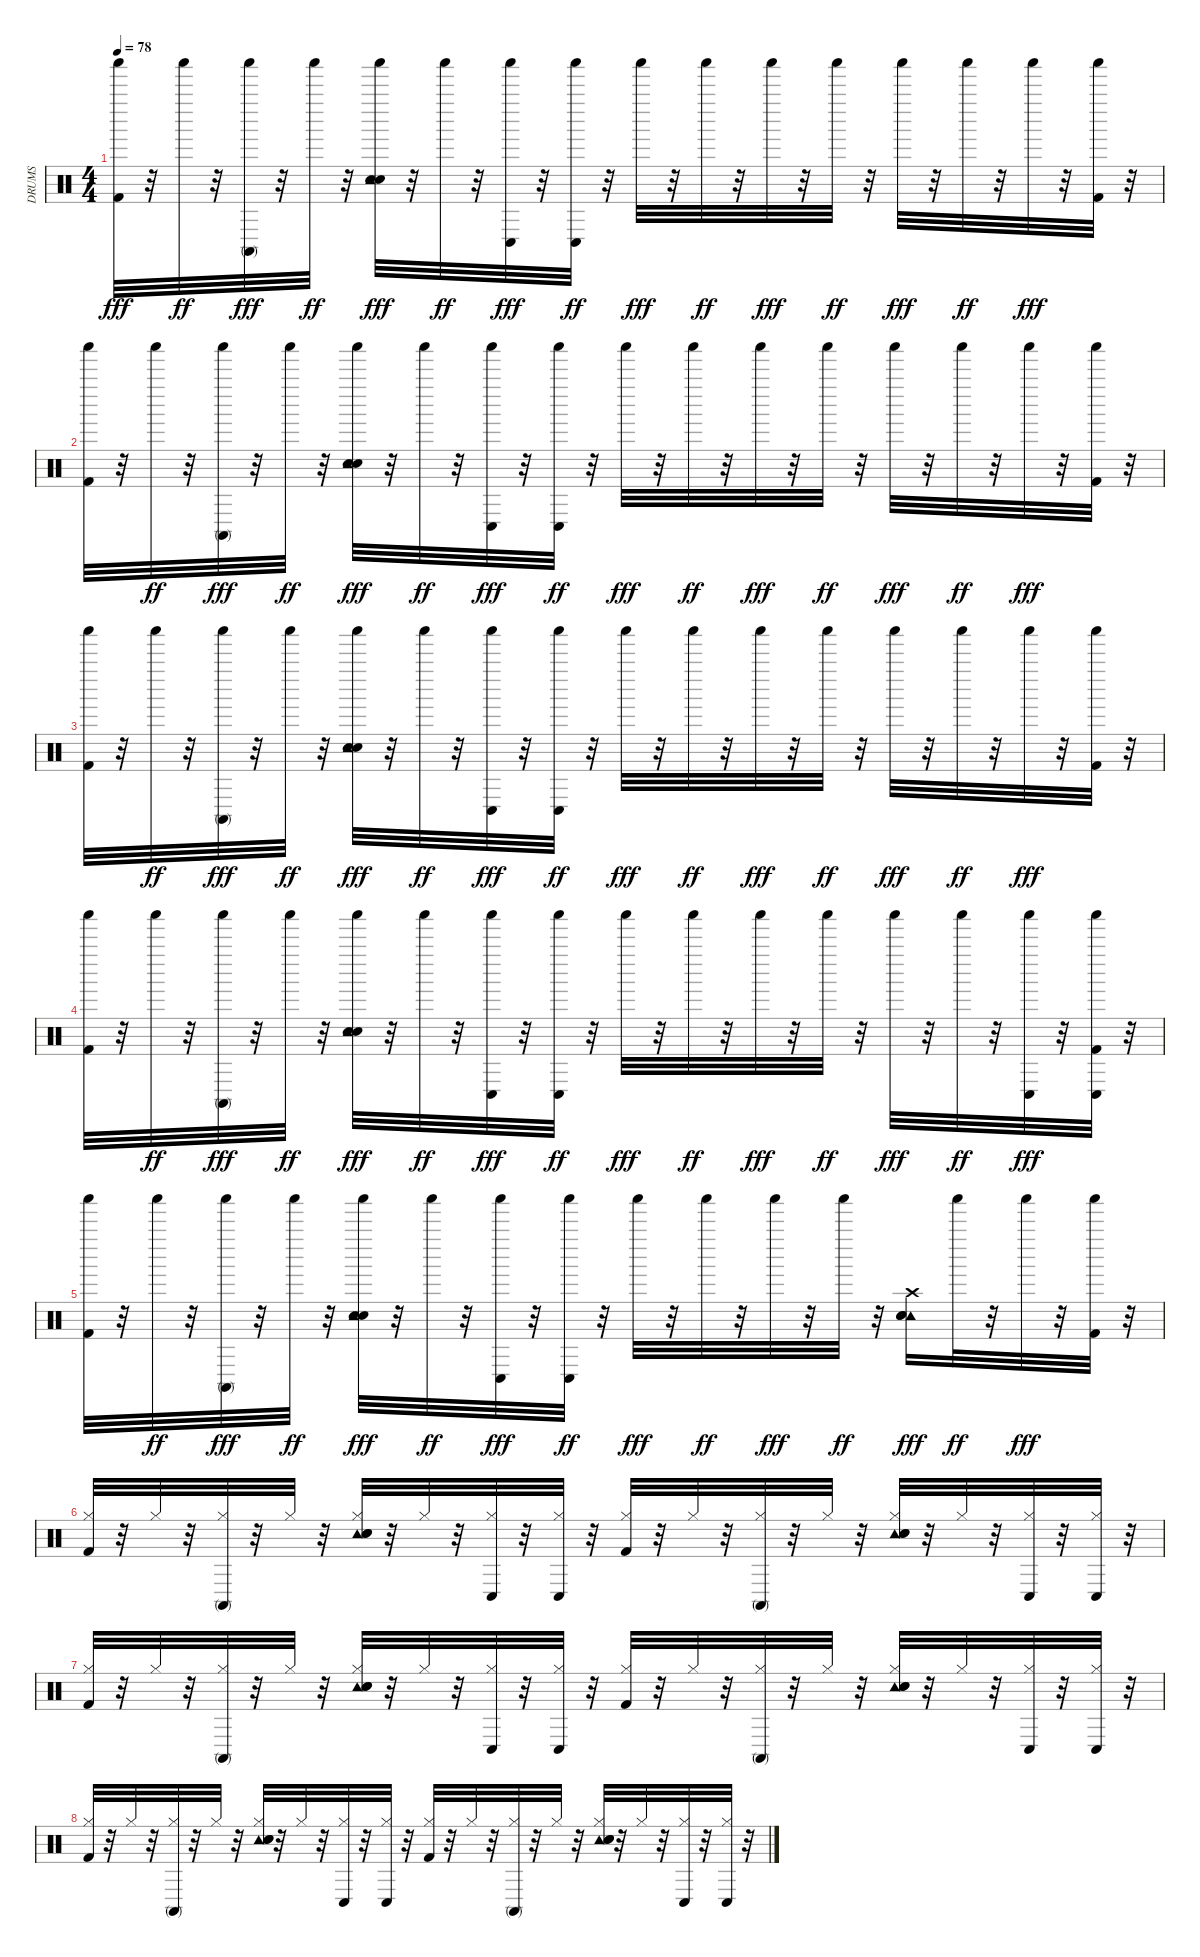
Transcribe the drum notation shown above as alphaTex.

\track ("DRUMS" "DRUMS") {instrument percussion}
\staff {score}
\articulation defaults
\ts (4 4)
\tempo 78
\clef neutral
\ks c
("Shaker (hit)" "Kick (hit) 2").32{dy fff} r.32 "Shaker (hit)".32{dy ff} r.32 ("Conga high (mute)" "Shaker (hit)").32{dy fff} r.32 "Shaker (hit)".32{dy ff} r.32 ("Snare (hit) 2" "Tambourine (hit)" "Snare (hit)" "Shaker (hit)").32{dy fff} r.32 "Shaker (hit)".32{dy ff} r.32 ("Conga low (hit)" "Shaker (hit)").32{dy fff} r.32 ("Conga low (hit)" "Shaker (hit)").32{dy ff} r.32 "Shaker (hit)".32{dy fff} r.32 "Shaker (hit)".32{dy ff} r.32 "Shaker (hit)".32{dy fff} r.32 "Shaker (hit)".32{dy ff} r.32 "Shaker (hit)".32{dy fff} r.32 "Shaker (hit)".32{dy ff} r.32 "Shaker (hit)".32{dy fff} r.32 ("Shaker (hit)" "Kick (hit) 2").32 r.32 |
("Shaker (hit)" "Kick (hit) 2").32 r.32 "Shaker (hit)".32{dy ff} r.32 ("Conga high (mute)" "Shaker (hit)").32{dy fff} r.32 "Shaker (hit)".32{dy ff} r.32 ("Snare (hit) 2" "Tambourine (hit)" "Snare (hit)" "Shaker (hit)").32{dy fff} r.32 "Shaker (hit)".32{dy ff} r.32 ("Conga low (hit)" "Shaker (hit)").32{dy fff} r.32 ("Conga low (hit)" "Shaker (hit)").32{dy ff} r.32 "Shaker (hit)".32{dy fff} r.32 "Shaker (hit)".32{dy ff} r.32 "Shaker (hit)".32{dy fff} r.32 "Shaker (hit)".32{dy ff} r.32 "Shaker (hit)".32{dy fff} r.32 "Shaker (hit)".32{dy ff} r.32 "Shaker (hit)".32{dy fff} r.32 ("Shaker (hit)" "Kick (hit) 2").32 r.32 |
("Shaker (hit)" "Kick (hit) 2").32 r.32 "Shaker (hit)".32{dy ff} r.32 ("Conga high (mute)" "Shaker (hit)").32{dy fff} r.32 "Shaker (hit)".32{dy ff} r.32 ("Snare (hit) 2" "Tambourine (hit)" "Snare (hit)" "Shaker (hit)").32{dy fff} r.32 "Shaker (hit)".32{dy ff} r.32 ("Conga low (hit)" "Shaker (hit)").32{dy fff} r.32 ("Conga low (hit)" "Shaker (hit)").32{dy ff} r.32 "Shaker (hit)".32{dy fff} r.32 "Shaker (hit)".32{dy ff} r.32 "Shaker (hit)".32{dy fff} r.32 "Shaker (hit)".32{dy ff} r.32 "Shaker (hit)".32{dy fff} r.32 "Shaker (hit)".32{dy ff} r.32 "Shaker (hit)".32{dy fff} r.32 ("Shaker (hit)" "Kick (hit) 2").32 r.32 |
("Shaker (hit)" "Kick (hit) 2").32 r.32 "Shaker (hit)".32{dy ff} r.32 ("Conga high (mute)" "Shaker (hit)").32{dy fff} r.32 "Shaker (hit)".32{dy ff} r.32 ("Snare (hit) 2" "Tambourine (hit)" "Snare (hit)" "Shaker (hit)").32{dy fff} r.32 "Shaker (hit)".32{dy ff} r.32 ("Conga low (hit)" "Shaker (hit)").32{dy fff} r.32 ("Conga low (hit)" "Shaker (hit)").32{dy ff} r.32 "Shaker (hit)".32{dy fff} r.32 "Shaker (hit)".32{dy ff} r.32 "Shaker (hit)".32{dy fff} r.32 "Shaker (hit)".32{dy ff} r.32 "Shaker (hit)".32{dy fff} r.32 "Shaker (hit)".32{dy ff} r.32 ("Conga low (hit)" "Shaker (hit)").32{dy fff} r.32 ("Conga low (hit)" "Shaker (hit)" "Kick (hit) 2").32 r.32 |
("Shaker (hit)" "Kick (hit) 2").32 r.32 "Shaker (hit)".32{dy ff} r.32 ("Conga high (mute)" "Shaker (hit)").32{dy fff} r.32 "Shaker (hit)".32{dy ff} r.32 ("Snare (hit) 2" "Tambourine (hit)" "Snare (hit)" "Shaker (hit)").32{dy fff} r.32 "Shaker (hit)".32{dy ff} r.32 ("Conga low (hit)" "Shaker (hit)").32{dy fff} r.32 ("Conga low (hit)" "Shaker (hit)").32{dy ff} r.32 "Shaker (hit)".32{dy fff} r.32 "Shaker (hit)".32{dy ff} r.32 "Shaker (hit)".32{dy fff} r.32 "Shaker (hit)".32{dy ff} r.32 ("Tambourine (hit)" "Snare (hit) 2" "Snare (hit)" "Crash high (hit)").16{dy fff} "Shaker (hit)".32{dy ff} r.32 "Shaker (hit)".32{dy fff} r.32 ("Shaker (hit)" "Kick (hit) 2").32 r.32 |
("Hi-Hat (closed)" "Kick (hit) 2").32 r.32 "Hi-Hat (closed)".32 r.32 ("Conga high (mute)" "Hi-Hat (closed)").32 r.32 "Hi-Hat (closed)".32 r.32 ("Hi-Hat (closed)" "Tambourine (hit)" "Snare (hit)" "Snare (hit) 2").32 r.32 "Hi-Hat (closed)".32 r.32 ("Conga low (hit)" "Hi-Hat (closed)").32 r.32 ("Conga low (hit)" "Hi-Hat (closed)").32 r.32 ("Hi-Hat (closed)" "Kick (hit) 2").32 r.32 "Hi-Hat (closed)".32 r.32 ("Conga high (mute)" "Hi-Hat (closed)").32 r.32 "Hi-Hat (closed)".32 r.32 ("Hi-Hat (closed)" "Tambourine (hit)" "Snare (hit) 2" "Snare (hit)").32 r.32 "Hi-Hat (closed)".32 r.32 ("Conga low (hit)" "Hi-Hat (closed)").32 r.32 ("Conga low (hit)" "Hi-Hat (closed)").32 r.32 |
("Hi-Hat (closed)" "Kick (hit) 2").32 r.32 "Hi-Hat (closed)".32 r.32 ("Conga high (mute)" "Hi-Hat (closed)").32 r.32 "Hi-Hat (closed)".32 r.32 ("Hi-Hat (closed)" "Tambourine (hit)" "Snare (hit)" "Snare (hit) 2").32 r.32 "Hi-Hat (closed)".32 r.32 ("Conga low (hit)" "Hi-Hat (closed)").32 r.32 ("Conga low (hit)" "Hi-Hat (closed)").32 r.32 ("Hi-Hat (closed)" "Kick (hit) 2").32 r.32 "Hi-Hat (closed)".32 r.32 ("Conga high (mute)" "Hi-Hat (closed)").32 r.32 "Hi-Hat (closed)".32 r.32 ("Hi-Hat (closed)" "Tambourine (hit)" "Snare (hit) 2" "Snare (hit)").32 r.32 "Hi-Hat (closed)".32 r.32 ("Conga low (hit)" "Hi-Hat (closed)").32 r.32 ("Conga low (hit)" "Hi-Hat (closed)").32 r.32 |
("Hi-Hat (closed)" "Kick (hit) 2").32 r.32 "Hi-Hat (closed)".32 r.32 ("Conga high (mute)" "Hi-Hat (closed)").32 r.32 "Hi-Hat (closed)".32 r.32 ("Hi-Hat (closed)" "Tambourine (hit)" "Snare (hit)" "Snare (hit) 2").32 r.32 "Hi-Hat (closed)".32 r.32 ("Conga low (hit)" "Hi-Hat (closed)").32 r.32 ("Conga low (hit)" "Hi-Hat (closed)").32 r.32 ("Hi-Hat (closed)" "Kick (hit) 2").32 r.32 "Hi-Hat (closed)".32 r.32 ("Conga high (mute)" "Hi-Hat (closed)").32 r.32 "Hi-Hat (closed)".32 r.32 ("Hi-Hat (closed)" "Tambourine (hit)" "Snare (hit) 2" "Snare (hit)").32 r.32 "Hi-Hat (closed)".32 r.32 ("Conga low (hit)" "Hi-Hat (closed)").32 r.32 ("Conga low (hit)" "Hi-Hat (closed)").32 r.32
